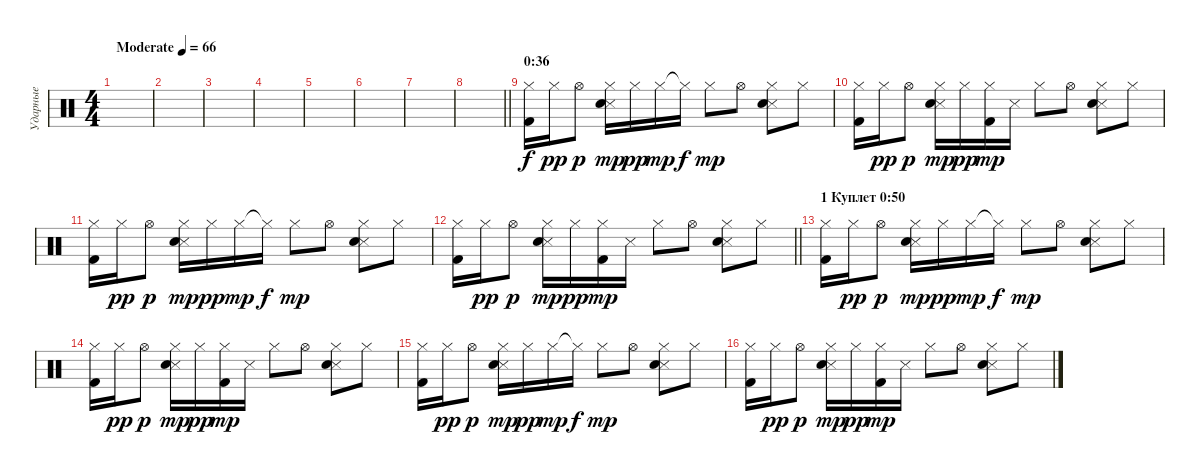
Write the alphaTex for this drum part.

\track ("Ударные" "Ударные") {instrument percussion}
\staff {score}
\articulation defaults
\ts (4 4)
\tempo (66 "Moderate")
\clef neutral
\ks c
|
|
|
|
|
|
|
\barLineRight lightlight
|
\section ("" "0:36")
("Hi-Hat (closed)" "Kick (hit) 2").16 "Hi-Hat (closed)".16{dy pp} "Hi-Hat (open)".8{dy p} ("Hi-Hat (closed)" "Snare (side stick) 3" "Electric Snare (hit)").16{dy mp} "Hi-Hat (closed)".16{dy pp} "Hi-Hat (closed)".16{dy mp} "Hi-Hat (closed)"{t}.16{dy f} "Hi-Hat (closed)".8{dy mp} "Hi-Hat (open)".8{balance 0} ("Hi-Hat (closed)" "Snare (side stick) 3" "Electric Snare (hit)").8{balance 8} "Hi-Hat (closed)".8 |
("Hi-Hat (closed)" "Kick (hit) 2").16 "Hi-Hat (closed)".16{dy pp} "Hi-Hat (open)".8{dy p} ("Hi-Hat (closed)" "Snare (side stick) 3" "Electric Snare (hit)").16{dy mp} "Hi-Hat (closed)".16{dy pp} ("Hi-Hat (closed)" "Kick (hit) 2").16{dy mp} "Snare (side stick) 3".16 "Hi-Hat (closed)".8 "Hi-Hat (open)".8{balance 0} ("Hi-Hat (closed)" "Snare (side stick) 3" "Electric Snare (hit)").8{balance 8} "Hi-Hat (closed)".8 |
("Hi-Hat (closed)" "Kick (hit) 2").16 "Hi-Hat (closed)".16{dy pp} "Hi-Hat (open)".8{dy p} ("Hi-Hat (closed)" "Snare (side stick) 3" "Electric Snare (hit)").16{dy mp} "Hi-Hat (closed)".16{dy pp} "Hi-Hat (closed)".16{dy mp} "Hi-Hat (closed)"{t}.16{dy f} "Hi-Hat (closed)".8{dy mp} "Hi-Hat (open)".8{balance 0} ("Hi-Hat (closed)" "Snare (side stick) 3" "Electric Snare (hit)").8{balance 8} "Hi-Hat (closed)".8 |
\barLineRight lightlight
("Hi-Hat (closed)" "Kick (hit) 2").16 "Hi-Hat (closed)".16{dy pp} "Hi-Hat (open)".8{dy p} ("Hi-Hat (closed)" "Snare (side stick) 3" "Electric Snare (hit)").16{dy mp} "Hi-Hat (closed)".16{dy pp} ("Hi-Hat (closed)" "Kick (hit) 2").16{dy mp} "Snare (side stick) 3".16 "Hi-Hat (closed)".8 "Hi-Hat (open)".8{balance 0} ("Hi-Hat (closed)" "Snare (side stick) 3" "Electric Snare (hit)").8{balance 8} "Hi-Hat (closed)".8 |
\section ("" "1 Куплет 0:50")
("Hi-Hat (closed)" "Kick (hit) 2").16 "Hi-Hat (closed)".16{dy pp} "Hi-Hat (open)".8{dy p} ("Hi-Hat (closed)" "Snare (side stick) 3" "Electric Snare (hit)").16{dy mp} "Hi-Hat (closed)".16{dy pp} "Hi-Hat (closed)".16{dy mp} "Hi-Hat (closed)"{t}.16{dy f} "Hi-Hat (closed)".8{dy mp} "Hi-Hat (open)".8{balance 0} ("Hi-Hat (closed)" "Snare (side stick) 3" "Electric Snare (hit)").8{balance 8} "Hi-Hat (closed)".8 |
("Hi-Hat (closed)" "Kick (hit) 2").16 "Hi-Hat (closed)".16{dy pp} "Hi-Hat (open)".8{dy p} ("Hi-Hat (closed)" "Snare (side stick) 3" "Electric Snare (hit)").16{dy mp} "Hi-Hat (closed)".16{dy pp} ("Hi-Hat (closed)" "Kick (hit) 2").16{dy mp} "Snare (side stick) 3".16 "Hi-Hat (closed)".8 "Hi-Hat (open)".8{balance 0} ("Hi-Hat (closed)" "Snare (side stick) 3" "Electric Snare (hit)").8{balance 8} "Hi-Hat (closed)".8 |
("Hi-Hat (closed)" "Kick (hit) 2").16 "Hi-Hat (closed)".16{dy pp} "Hi-Hat (open)".8{dy p} ("Hi-Hat (closed)" "Snare (side stick) 3" "Electric Snare (hit)").16{dy mp} "Hi-Hat (closed)".16{dy pp} "Hi-Hat (closed)".16{dy mp} "Hi-Hat (closed)"{t}.16{dy f} "Hi-Hat (closed)".8{dy mp} "Hi-Hat (open)".8{balance 0} ("Hi-Hat (closed)" "Snare (side stick) 3" "Electric Snare (hit)").8{balance 8} "Hi-Hat (closed)".8 |
("Hi-Hat (closed)" "Kick (hit) 2").16 "Hi-Hat (closed)".16{dy pp} "Hi-Hat (open)".8{dy p} ("Hi-Hat (closed)" "Snare (side stick) 3" "Electric Snare (hit)").16{dy mp} "Hi-Hat (closed)".16{dy pp} ("Hi-Hat (closed)" "Kick (hit) 2").16{dy mp} "Snare (side stick) 3".16 "Hi-Hat (closed)".8 "Hi-Hat (open)".8{balance 0} ("Hi-Hat (closed)" "Snare (side stick) 3" "Electric Snare (hit)").8{balance 8} "Hi-Hat (closed)".8
